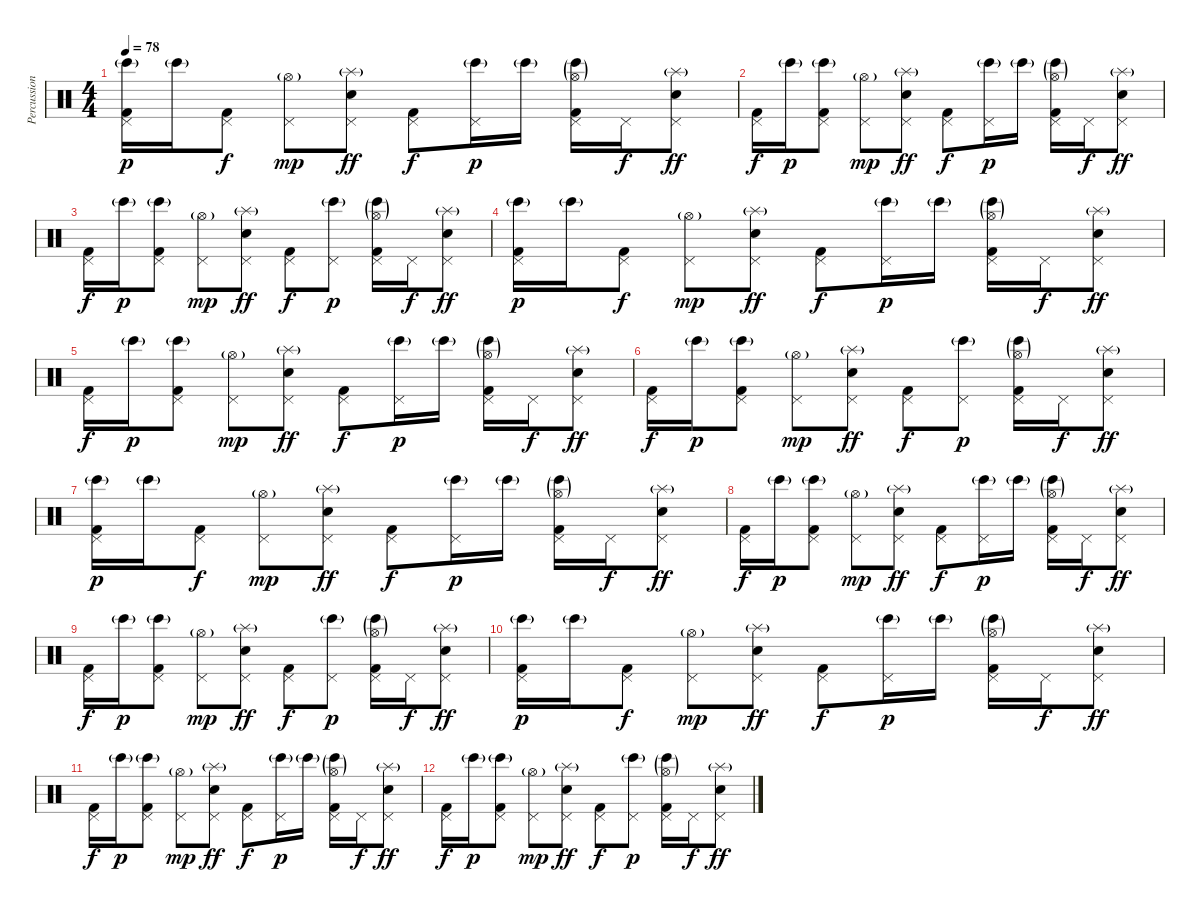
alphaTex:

\track ("Percussions" "Percussion") {instrument percussion}
\staff {score}
\articulation defaults
\ts (4 4)
\tempo 78
\clef neutral
\ks c
("Pedal Hi-Hat (hit)" "Bongo High (hit)"{g} "Kick (hit) 2").16{dy p} "Bongo High (hit)"{g}.16 ("Pedal Hi-Hat (hit)" "Kick (hit) 2").8{dy f} ("Pedal Hi-Hat (hit)" "Hi-Hat (open)"{g}).8{dy mp} ("Pedal Hi-Hat (hit)" "Splash (hit)"{g} "Electric Snare (hit)").8{dy ff} ("Pedal Hi-Hat (hit)" "Kick (hit) 2").8{dy f} ("Pedal Hi-Hat (hit)" "Bongo High (hit)"{g}).16{dy p} "Bongo High (hit)"{g}.16 ("Pedal Hi-Hat (hit)" "Hi-Hat (open)"{g} "Bongo High (hit)"{g} "Kick (hit) 2").16 "Pedal Hi-Hat (hit)".16{dy f} ("Pedal Hi-Hat (hit)" "Splash (hit)"{g} "Electric Snare (hit)").8{dy ff} |
("Pedal Hi-Hat (hit)" "Kick (hit) 2").16{dy f} "Bongo High (hit)"{g}.16{dy p} ("Pedal Hi-Hat (hit)" "Bongo High (hit)"{g} "Kick (hit) 2").8 ("Pedal Hi-Hat (hit)" "Hi-Hat (open)"{g}).8{dy mp} ("Pedal Hi-Hat (hit)" "Splash (hit)"{g} "Electric Snare (hit)").8{dy ff} ("Pedal Hi-Hat (hit)" "Kick (hit) 2").8{dy f} ("Pedal Hi-Hat (hit)" "Bongo High (hit)"{g}).16{dy p} "Bongo High (hit)"{g}.16 ("Pedal Hi-Hat (hit)" "Hi-Hat (open)"{g} "Bongo High (hit)"{g} "Kick (hit) 2").16 "Pedal Hi-Hat (hit)".16{dy f} ("Pedal Hi-Hat (hit)" "Splash (hit)"{g} "Electric Snare (hit)").8{dy ff} |
("Pedal Hi-Hat (hit)" "Kick (hit) 2").16{dy f} "Bongo High (hit)"{g}.16{dy p} ("Pedal Hi-Hat (hit)" "Bongo High (hit)"{g} "Kick (hit) 2").8 ("Pedal Hi-Hat (hit)" "Hi-Hat (open)"{g}).8{dy mp} ("Pedal Hi-Hat (hit)" "Splash (hit)"{g} "Electric Snare (hit)").8{dy ff} ("Pedal Hi-Hat (hit)" "Kick (hit) 2").8{dy f} ("Pedal Hi-Hat (hit)" "Bongo High (hit)"{g}).8{dy p} ("Pedal Hi-Hat (hit)" "Hi-Hat (open)"{g} "Bongo High (hit)"{g} "Kick (hit) 2").16 "Pedal Hi-Hat (hit)".16{dy f} ("Pedal Hi-Hat (hit)" "Splash (hit)"{g} "Electric Snare (hit)").8{dy ff} |
("Pedal Hi-Hat (hit)" "Bongo High (hit)"{g} "Kick (hit) 2").16{dy p} "Bongo High (hit)"{g}.16 ("Pedal Hi-Hat (hit)" "Kick (hit) 2").8{dy f} ("Pedal Hi-Hat (hit)" "Hi-Hat (open)"{g}).8{dy mp} ("Pedal Hi-Hat (hit)" "Splash (hit)"{g} "Electric Snare (hit)").8{dy ff} ("Pedal Hi-Hat (hit)" "Kick (hit) 2").8{dy f} ("Pedal Hi-Hat (hit)" "Bongo High (hit)"{g}).16{dy p} "Bongo High (hit)"{g}.16 ("Pedal Hi-Hat (hit)" "Hi-Hat (open)"{g} "Bongo High (hit)"{g} "Kick (hit) 2").16 "Pedal Hi-Hat (hit)".16{dy f} ("Pedal Hi-Hat (hit)" "Splash (hit)"{g} "Electric Snare (hit)").8{dy ff} |
("Pedal Hi-Hat (hit)" "Kick (hit) 2").16{dy f} "Bongo High (hit)"{g}.16{dy p} ("Pedal Hi-Hat (hit)" "Bongo High (hit)"{g} "Kick (hit) 2").8 ("Pedal Hi-Hat (hit)" "Hi-Hat (open)"{g}).8{dy mp} ("Pedal Hi-Hat (hit)" "Splash (hit)"{g} "Electric Snare (hit)").8{dy ff} ("Pedal Hi-Hat (hit)" "Kick (hit) 2").8{dy f} ("Pedal Hi-Hat (hit)" "Bongo High (hit)"{g}).16{dy p} "Bongo High (hit)"{g}.16 ("Pedal Hi-Hat (hit)" "Hi-Hat (open)"{g} "Bongo High (hit)"{g} "Kick (hit) 2").16 "Pedal Hi-Hat (hit)".16{dy f} ("Pedal Hi-Hat (hit)" "Splash (hit)"{g} "Electric Snare (hit)").8{dy ff} |
("Pedal Hi-Hat (hit)" "Kick (hit) 2").16{dy f} "Bongo High (hit)"{g}.16{dy p} ("Pedal Hi-Hat (hit)" "Bongo High (hit)"{g} "Kick (hit) 2").8 ("Pedal Hi-Hat (hit)" "Hi-Hat (open)"{g}).8{dy mp} ("Pedal Hi-Hat (hit)" "Splash (hit)"{g} "Electric Snare (hit)").8{dy ff} ("Pedal Hi-Hat (hit)" "Kick (hit) 2").8{dy f} ("Pedal Hi-Hat (hit)" "Bongo High (hit)"{g}).8{dy p} ("Pedal Hi-Hat (hit)" "Hi-Hat (open)"{g} "Bongo High (hit)"{g} "Kick (hit) 2").16 "Pedal Hi-Hat (hit)".16{dy f} ("Pedal Hi-Hat (hit)" "Splash (hit)"{g} "Electric Snare (hit)").8{dy ff} |
("Pedal Hi-Hat (hit)" "Bongo High (hit)"{g} "Kick (hit) 2").16{dy p} "Bongo High (hit)"{g}.16 ("Pedal Hi-Hat (hit)" "Kick (hit) 2").8{dy f} ("Pedal Hi-Hat (hit)" "Hi-Hat (open)"{g}).8{dy mp} ("Pedal Hi-Hat (hit)" "Splash (hit)"{g} "Electric Snare (hit)").8{dy ff} ("Pedal Hi-Hat (hit)" "Kick (hit) 2").8{dy f} ("Pedal Hi-Hat (hit)" "Bongo High (hit)"{g}).16{dy p} "Bongo High (hit)"{g}.16 ("Pedal Hi-Hat (hit)" "Hi-Hat (open)"{g} "Bongo High (hit)"{g} "Kick (hit) 2").16 "Pedal Hi-Hat (hit)".16{dy f} ("Pedal Hi-Hat (hit)" "Splash (hit)"{g} "Electric Snare (hit)").8{dy ff} |
("Pedal Hi-Hat (hit)" "Kick (hit) 2").16{dy f} "Bongo High (hit)"{g}.16{dy p} ("Pedal Hi-Hat (hit)" "Bongo High (hit)"{g} "Kick (hit) 2").8 ("Pedal Hi-Hat (hit)" "Hi-Hat (open)"{g}).8{dy mp} ("Pedal Hi-Hat (hit)" "Splash (hit)"{g} "Electric Snare (hit)").8{dy ff} ("Pedal Hi-Hat (hit)" "Kick (hit) 2").8{dy f} ("Pedal Hi-Hat (hit)" "Bongo High (hit)"{g}).16{dy p} "Bongo High (hit)"{g}.16 ("Pedal Hi-Hat (hit)" "Hi-Hat (open)"{g} "Bongo High (hit)"{g} "Kick (hit) 2").16 "Pedal Hi-Hat (hit)".16{dy f} ("Pedal Hi-Hat (hit)" "Splash (hit)"{g} "Electric Snare (hit)").8{dy ff} |
("Pedal Hi-Hat (hit)" "Kick (hit) 2").16{dy f} "Bongo High (hit)"{g}.16{dy p} ("Pedal Hi-Hat (hit)" "Bongo High (hit)"{g} "Kick (hit) 2").8 ("Pedal Hi-Hat (hit)" "Hi-Hat (open)"{g}).8{dy mp} ("Pedal Hi-Hat (hit)" "Splash (hit)"{g} "Electric Snare (hit)").8{dy ff} ("Pedal Hi-Hat (hit)" "Kick (hit) 2").8{dy f} ("Pedal Hi-Hat (hit)" "Bongo High (hit)"{g}).8{dy p} ("Pedal Hi-Hat (hit)" "Hi-Hat (open)"{g} "Bongo High (hit)"{g} "Kick (hit) 2").16 "Pedal Hi-Hat (hit)".16{dy f} ("Pedal Hi-Hat (hit)" "Splash (hit)"{g} "Electric Snare (hit)").8{dy ff} |
("Pedal Hi-Hat (hit)" "Bongo High (hit)"{g} "Kick (hit) 2").16{dy p} "Bongo High (hit)"{g}.16 ("Pedal Hi-Hat (hit)" "Kick (hit) 2").8{dy f} ("Pedal Hi-Hat (hit)" "Hi-Hat (open)"{g}).8{dy mp} ("Pedal Hi-Hat (hit)" "Splash (hit)"{g} "Electric Snare (hit)").8{dy ff} ("Pedal Hi-Hat (hit)" "Kick (hit) 2").8{dy f} ("Pedal Hi-Hat (hit)" "Bongo High (hit)"{g}).16{dy p} "Bongo High (hit)"{g}.16 ("Pedal Hi-Hat (hit)" "Hi-Hat (open)"{g} "Bongo High (hit)"{g} "Kick (hit) 2").16 "Pedal Hi-Hat (hit)".16{dy f} ("Pedal Hi-Hat (hit)" "Splash (hit)"{g} "Electric Snare (hit)").8{dy ff} |
("Pedal Hi-Hat (hit)" "Kick (hit) 2").16{dy f} "Bongo High (hit)"{g}.16{dy p} ("Pedal Hi-Hat (hit)" "Bongo High (hit)"{g} "Kick (hit) 2").8 ("Pedal Hi-Hat (hit)" "Hi-Hat (open)"{g}).8{dy mp} ("Pedal Hi-Hat (hit)" "Splash (hit)"{g} "Electric Snare (hit)").8{dy ff} ("Pedal Hi-Hat (hit)" "Kick (hit) 2").8{dy f} ("Pedal Hi-Hat (hit)" "Bongo High (hit)"{g}).16{dy p} "Bongo High (hit)"{g}.16 ("Pedal Hi-Hat (hit)" "Hi-Hat (open)"{g} "Bongo High (hit)"{g} "Kick (hit) 2").16 "Pedal Hi-Hat (hit)".16{dy f} ("Pedal Hi-Hat (hit)" "Splash (hit)"{g} "Electric Snare (hit)").8{dy ff} |
("Pedal Hi-Hat (hit)" "Kick (hit) 2").16{dy f} "Bongo High (hit)"{g}.16{dy p} ("Pedal Hi-Hat (hit)" "Bongo High (hit)"{g} "Kick (hit) 2").8 ("Pedal Hi-Hat (hit)" "Hi-Hat (open)"{g}).8{dy mp} ("Pedal Hi-Hat (hit)" "Splash (hit)"{g} "Electric Snare (hit)").8{dy ff} ("Pedal Hi-Hat (hit)" "Kick (hit) 2").8{dy f} ("Pedal Hi-Hat (hit)" "Bongo High (hit)"{g}).8{dy p} ("Pedal Hi-Hat (hit)" "Hi-Hat (open)"{g} "Bongo High (hit)"{g} "Kick (hit) 2").16 "Pedal Hi-Hat (hit)".16{dy f} ("Pedal Hi-Hat (hit)" "Splash (hit)"{g} "Electric Snare (hit)").8{dy ff}
